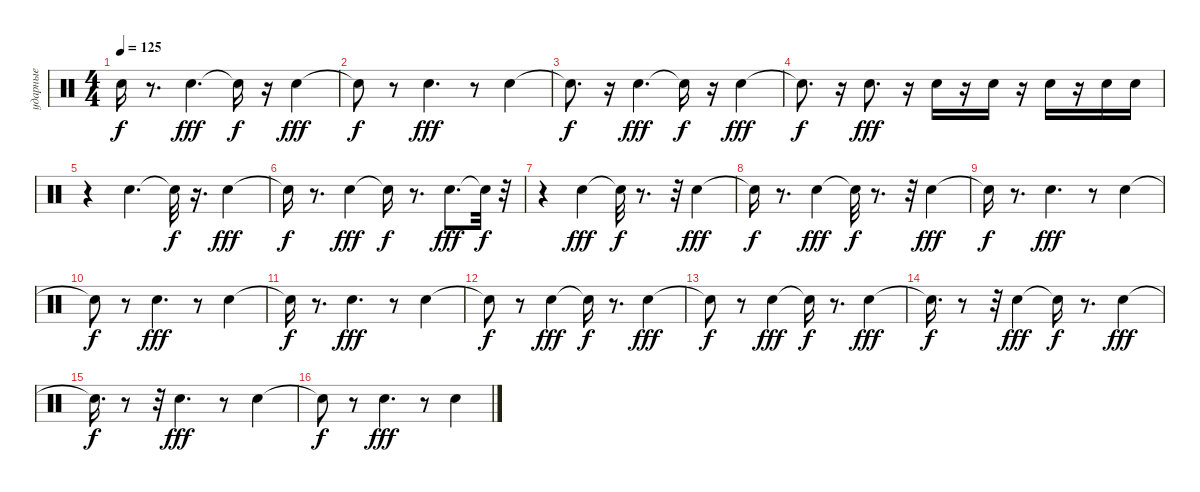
\track ("ударные" "ударные") {instrument percussion}
\staff {score}
\articulation defaults
\ts (4 4)
\tempo 125
\clef neutral
\ks c "Snare (hit)"{t}.16{dy f}
r.8{d} "Snare (hit) 2".4{d dy fff} "Snare (hit)"{t}.16{dy f} r.16 "Snare (hit) 2".4{dy fff} |
"Snare (hit)"{t}.8{dy f} r.8 "Snare (hit) 2".4{d dy fff} r.8 "Snare (hit) 2".4 |
"Snare (hit)"{t}.8{d dy f} r.16 "Snare (hit) 2".4{d dy fff} "Snare (hit)"{t}.16{dy f} r.16 "Snare (hit) 2".4{dy fff} |
"Snare (hit)"{t}.8{d dy f} r.16 "Snare (hit) 2".8{d dy fff} r.16 "Snare (hit) 2".16 r.16 "Snare (hit) 2".16 r.16 "Snare (hit) 2".16 r.16 "Snare (hit) 2".16 "Snare (hit) 2".16 |
r.4 "Snare (hit) 2".4{d} "Snare (hit)"{t}.32{dy f} r.16{d} "Snare (hit) 2".4{dy fff} |
"Snare (hit)"{t}.16{dy f} r.8{d} "Snare (hit) 2".4{dy fff} "Snare (hit)"{t}.16{dy f} r.8{d} "Snare (hit) 2".8{d dy fff} "Snare (hit)"{t}.32{dy f} r.32 |
r.4 "Snare (hit) 2".4{dy fff} "Snare (hit)"{t}.32{dy f} r.8{d} r.32 "Snare (hit) 2".4{dy fff} |
"Snare (hit)"{t}.16{dy f} r.8{d} "Snare (hit) 2".4{dy fff} "Snare (hit)"{t}.32{dy f} r.8{d} r.32 "Snare (hit) 2".4{dy fff} |
"Snare (hit)"{t}.16{dy f} r.8{d} "Snare (hit) 2".4{d dy fff} r.8 "Snare (hit) 2".4 |
"Snare (hit)"{t}.8{dy f} r.8 "Snare (hit) 2".4{d dy fff} r.8 "Snare (hit) 2".4 |
"Snare (hit)"{t}.16{dy f} r.8{d} "Snare (hit) 2".4{d dy fff} r.8 "Snare (hit) 2".4 |
"Snare (hit)"{t}.8{dy f} r.8 "Snare (hit) 2".4{dy fff} "Snare (hit)"{t}.16{dy f} r.8{d} "Snare (hit) 2".4{dy fff} |
"Snare (hit)"{t}.8{dy f} r.8 "Snare (hit) 2".4{dy fff} "Snare (hit)"{t}.16{dy f} r.8{d} "Snare (hit) 2".4{dy fff} |
"Snare (hit)"{t}.16{d dy f} r.8 r.32 "Snare (hit) 2".4{dy fff} "Snare (hit)"{t}.16{dy f} r.8{d} "Snare (hit) 2".4{dy fff} |
"Snare (hit)"{t}.16{d dy f} r.8 r.32 "Snare (hit) 2".4{d dy fff} r.8 "Snare (hit) 2".4 |
"Snare (hit)"{t}.8{dy f} r.8 "Snare (hit) 2".4{d dy fff} r.8 "Snare (hit) 2".4
